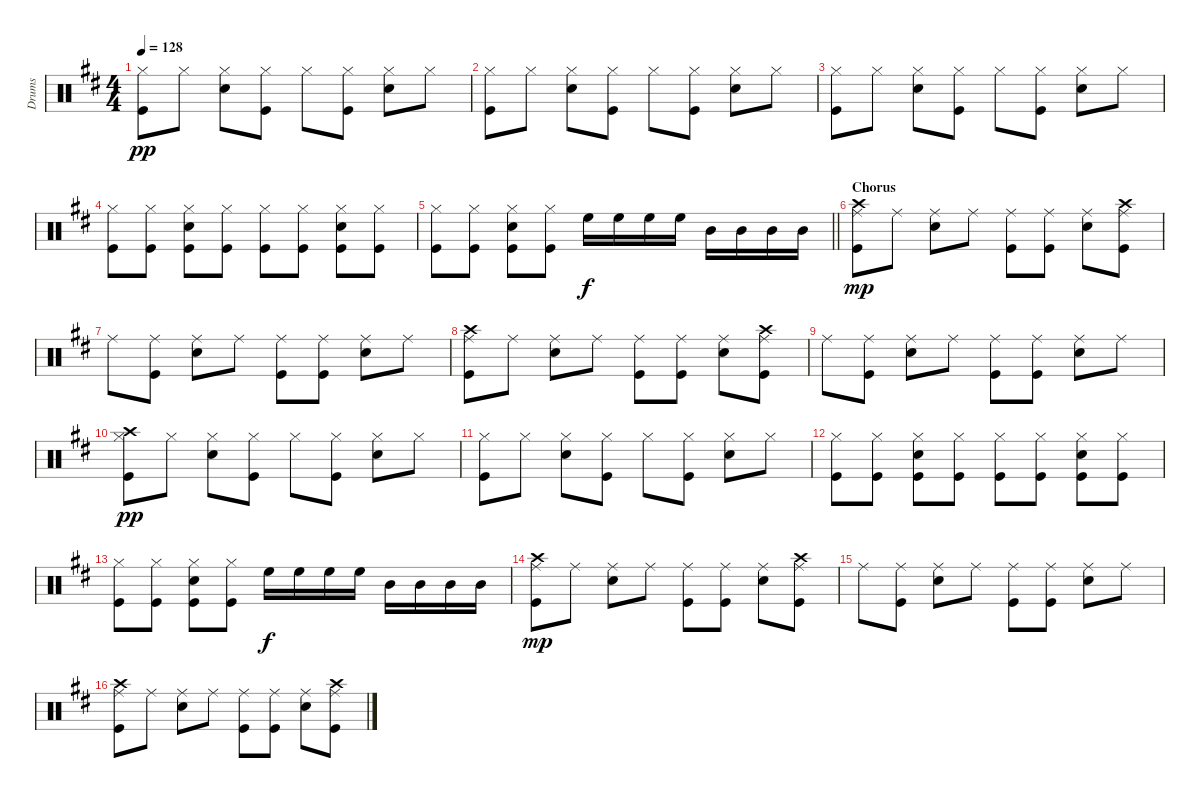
\track ("Drums" "Drums") {instrument percussion}
\staff {score}
\articulation defaults
\ts (4 4)
\tempo 128
\clef neutral
\ks d
("Hi-Hat (closed)" "Kick (hit)").8{dy pp} "Hi-Hat (closed)".8 ("Hi-Hat (closed)" "Electric Snare (hit)").8 ("Hi-Hat (closed)" "Kick (hit)").8 "Hi-Hat (closed)".8 ("Hi-Hat (closed)" "Kick (hit)").8 ("Hi-Hat (closed)" "Electric Snare (hit)").8 "Hi-Hat (closed)".8 |
("Hi-Hat (closed)" "Kick (hit)").8 "Hi-Hat (closed)".8 ("Hi-Hat (closed)" "Electric Snare (hit)").8 ("Hi-Hat (closed)" "Kick (hit)").8 "Hi-Hat (closed)".8 ("Hi-Hat (closed)" "Kick (hit)").8 ("Hi-Hat (closed)" "Electric Snare (hit)").8 "Hi-Hat (closed)".8 |
("Hi-Hat (closed)" "Kick (hit)").8 "Hi-Hat (closed)".8 ("Hi-Hat (closed)" "Electric Snare (hit)").8 ("Hi-Hat (closed)" "Kick (hit)").8 "Hi-Hat (closed)".8 ("Hi-Hat (closed)" "Kick (hit)").8 ("Hi-Hat (closed)" "Electric Snare (hit)").8 "Hi-Hat (closed)".8 |
("Hi-Hat (closed)" "Kick (hit)").8 ("Hi-Hat (closed)" "Kick (hit)").8 ("Hi-Hat (closed)" "Electric Snare (hit)" "Kick (hit)").8 ("Hi-Hat (closed)" "Kick (hit)").8 ("Hi-Hat (closed)" "Kick (hit)").8 ("Hi-Hat (closed)" "Kick (hit)").8 ("Hi-Hat (closed)" "Electric Snare (hit)" "Kick (hit)").8 ("Hi-Hat (closed)" "Kick (hit)").8 |
\barLineRight lightlight
("Hi-Hat (closed)" "Kick (hit)").8 ("Hi-Hat (closed)" "Kick (hit)").8 ("Hi-Hat (closed)" "Electric Snare (hit)" "Kick (hit)").8 ("Hi-Hat (closed)" "Kick (hit)").8 "High Floor Tom (hit)".16{dy f} "High Floor Tom (hit)".16 "High Floor Tom (hit)".16 "High Floor Tom (hit)".16 "Mid Tom (hit)".16 "Mid Tom (hit)".16 "Mid Tom (hit)".16 "Mid Tom (hit)".16 |
\section ("" "Chorus")
("Crash high (hit)" "Ride (middle)" "Kick (hit)").8{dy mp} "Ride (middle)".8 ("Ride (middle)" "Electric Snare (hit)").8 "Ride (middle)".8 ("Ride (middle)" "Kick (hit)").8 ("Ride (middle)" "Kick (hit)").8 ("Ride (middle)" "Electric Snare (hit)").8 ("Crash high (hit)" "Ride (middle)" "Kick (hit)").8 |
"Ride (middle)".8 ("Ride (middle)" "Kick (hit)").8 ("Ride (middle)" "Electric Snare (hit)").8 "Ride (middle)".8 ("Ride (middle)" "Kick (hit)").8 ("Ride (middle)" "Kick (hit)").8 ("Ride (middle)" "Electric Snare (hit)").8 "Ride (middle)".8 |
("Crash high (hit)" "Ride (middle)" "Kick (hit)").8 "Ride (middle)".8 ("Ride (middle)" "Electric Snare (hit)").8 "Ride (middle)".8 ("Ride (middle)" "Kick (hit)").8 ("Ride (middle)" "Kick (hit)").8 ("Ride (middle)" "Electric Snare (hit)").8 ("Crash high (hit)" "Ride (middle)" "Kick (hit)").8 |
"Ride (middle)".8 ("Ride (middle)" "Kick (hit)").8 ("Ride (middle)" "Electric Snare (hit)").8 "Ride (middle)".8 ("Ride (middle)" "Kick (hit)").8 ("Ride (middle)" "Kick (hit)").8 ("Ride (middle)" "Electric Snare (hit)").8 "Ride (middle)".8 |
("Crash high (hit)" "Hi-Hat (closed)" "Kick (hit)").8{dy pp} "Hi-Hat (closed)".8 ("Hi-Hat (closed)" "Electric Snare (hit)").8 ("Hi-Hat (closed)" "Kick (hit)").8 "Hi-Hat (closed)".8 ("Hi-Hat (closed)" "Kick (hit)").8 ("Hi-Hat (closed)" "Electric Snare (hit)").8 "Hi-Hat (closed)".8 |
("Hi-Hat (closed)" "Kick (hit)").8 "Hi-Hat (closed)".8 ("Hi-Hat (closed)" "Electric Snare (hit)").8 ("Hi-Hat (closed)" "Kick (hit)").8 "Hi-Hat (closed)".8 ("Hi-Hat (closed)" "Kick (hit)").8 ("Hi-Hat (closed)" "Electric Snare (hit)").8 "Hi-Hat (closed)".8 |
("Hi-Hat (closed)" "Kick (hit)").8 ("Hi-Hat (closed)" "Kick (hit)").8 ("Hi-Hat (closed)" "Electric Snare (hit)" "Kick (hit)").8 ("Hi-Hat (closed)" "Kick (hit)").8 ("Hi-Hat (closed)" "Kick (hit)").8 ("Hi-Hat (closed)" "Kick (hit)").8 ("Hi-Hat (closed)" "Electric Snare (hit)" "Kick (hit)").8 ("Hi-Hat (closed)" "Kick (hit)").8 |
("Hi-Hat (closed)" "Kick (hit)").8 ("Hi-Hat (closed)" "Kick (hit)").8 ("Hi-Hat (closed)" "Electric Snare (hit)" "Kick (hit)").8 ("Hi-Hat (closed)" "Kick (hit)").8 "High Floor Tom (hit)".16{dy f} "High Floor Tom (hit)".16 "High Floor Tom (hit)".16 "High Floor Tom (hit)".16 "Mid Tom (hit)".16 "Mid Tom (hit)".16 "Mid Tom (hit)".16 "Mid Tom (hit)".16 |
("Crash high (hit)" "Ride (middle)" "Kick (hit)").8{dy mp} "Ride (middle)".8 ("Ride (middle)" "Electric Snare (hit)").8 "Ride (middle)".8 ("Ride (middle)" "Kick (hit)").8 ("Ride (middle)" "Kick (hit)").8 ("Ride (middle)" "Electric Snare (hit)").8 ("Crash high (hit)" "Ride (middle)" "Kick (hit)").8 |
"Ride (middle)".8 ("Ride (middle)" "Kick (hit)").8 ("Ride (middle)" "Electric Snare (hit)").8 "Ride (middle)".8 ("Ride (middle)" "Kick (hit)").8 ("Ride (middle)" "Kick (hit)").8 ("Ride (middle)" "Electric Snare (hit)").8 "Ride (middle)".8 |
("Crash high (hit)" "Ride (middle)" "Kick (hit)").8 "Ride (middle)".8 ("Ride (middle)" "Electric Snare (hit)").8 "Ride (middle)".8 ("Ride (middle)" "Kick (hit)").8 ("Ride (middle)" "Kick (hit)").8 ("Ride (middle)" "Electric Snare (hit)").8 ("Crash high (hit)" "Ride (middle)" "Kick (hit)").8
